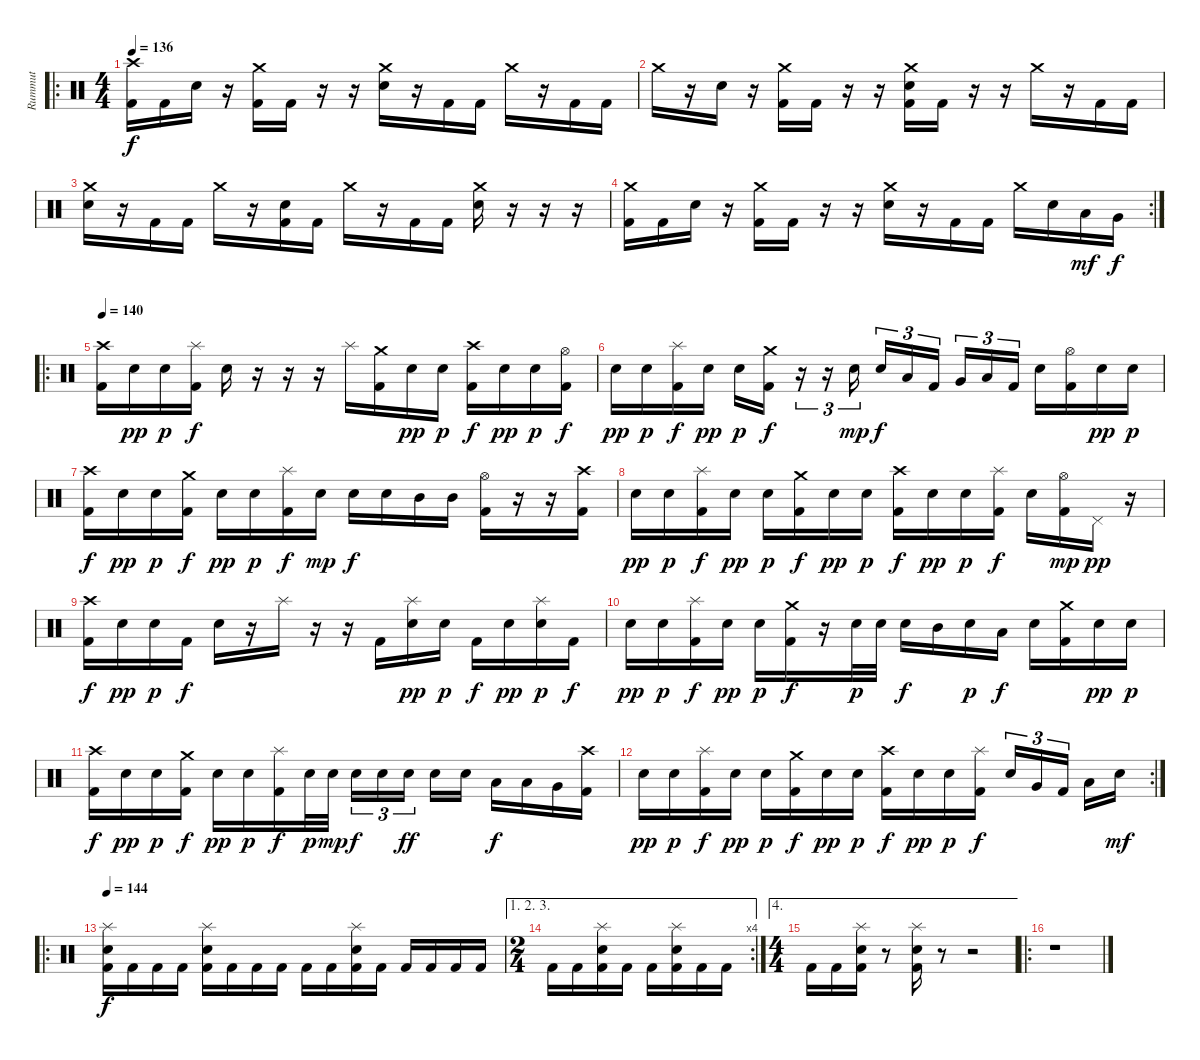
\track ("Rummut" "Rummut") {instrument percussion}
\staff {score}
\articulation defaults
\ro
\ts (4 4)
\tempo 136
\clef neutral
\ks c
("Crash high (hit)" "Kick (hit) 2").16{dy f} "Kick (hit) 2".16 "Electric Snare (hit)".16 r.16 ("Crash medium (hit)" "Kick (hit) 2").16 "Kick (hit) 2".16 r.16 r.16 ("Crash medium (hit)" "Electric Snare (hit)").16 r.16 "Kick (hit) 2".16 "Kick (hit) 2".16 "Crash medium (hit)".16 r.16 "Kick (hit) 2".16 "Kick (hit) 2".16 |
"Crash medium (hit)".16 r.16 "Electric Snare (hit)".16 r.16 ("Crash medium (hit)" "Kick (hit) 2").16 "Kick (hit) 2".16 r.16 r.16 ("Crash medium (hit)" "Electric Snare (hit)" "Kick (hit) 2").16 "Kick (hit) 2".16 r.16 r.16 "Crash medium (hit)".16 r.16 "Kick (hit) 2".16 "Kick (hit) 2".16 |
("Crash medium (hit)" "Electric Snare (hit)").16 r.16 "Kick (hit) 2".16 "Kick (hit) 2".16 "Crash medium (hit)".16 r.16 ("Electric Snare (hit)" "Kick (hit) 2").16 "Kick (hit) 2".16 "Crash medium (hit)".16 r.16 "Kick (hit) 2".16 "Kick (hit) 2".16 ("Crash medium (hit)" "Electric Snare (hit)").16 r.16 r.16 r.16 |
\rc 2
("Crash medium (hit)" "Kick (hit) 2").16 "Kick (hit) 2".16 "Electric Snare (hit)".16 r.16 ("Crash medium (hit)" "Kick (hit) 2").16 "Kick (hit) 2".16 r.16 r.16 ("Crash medium (hit)" "Electric Snare (hit)").16 r.16 "Kick (hit) 2".16 "Kick (hit) 2".16 "Crash medium (hit)".16 "Electric Snare (hit)".16 "Low Tom (hit)".16{dy mf} "Very Low Tom (hit)".16{dy f} |
\ro
\tempo 140
("Crash high (hit)" "Kick (hit) 2").16 "Electric Snare (hit)".16{dy pp} "Electric Snare (hit)".16{dy p} ("Splash (hit)" "Kick (hit) 2").16{dy f} "Electric Snare (hit)".16 r.16 r.16 r.16 "Splash (hit)".16 ("Crash medium (hit)" "Kick (hit) 2").16 "Electric Snare (hit)".16{dy pp} "Electric Snare (hit)".16{dy p} ("Crash high (hit)" "Kick (hit) 2").16{dy f} "Electric Snare (hit)".16{dy pp} "Electric Snare (hit)".16{dy p} ("Hi-Hat (open)" "Kick (hit) 2").16{dy f} |
"Electric Snare (hit)".16{dy pp} "Electric Snare (hit)".16{dy p} ("Splash (hit)" "Kick (hit) 2").16{dy f} "Electric Snare (hit)".16{dy pp} "Electric Snare (hit)".16{dy p} ("Crash medium (hit)" "Kick (hit) 2").16{dy f} r.16{tu (3 2)} r.16{tu (3 2)} "Electric Snare (hit)".16{tu (3 2) dy mp} "Electric Snare (hit)".16{tu (3 2) dy f} "Low Tom (hit)".16{tu (3 2)} "Kick (hit) 2".16{tu (3 2)} "Very Low Tom (hit)".16{tu (3 2)} "Low Floor Tom (hit)".16{tu (3 2)} "Kick (hit) 2".16{tu (3 2)} "Electric Snare (hit)".16 ("Hi-Hat (open)" "Kick (hit) 2").16 "Electric Snare (hit)".16{dy pp} "Electric Snare (hit)".16{dy p} |
("Crash high (hit)" "Kick (hit) 2").16{dy f} "Electric Snare (hit)".16{dy pp} "Electric Snare (hit)".16{dy p} ("Crash medium (hit)" "Kick (hit) 2").16{dy f} "Electric Snare (hit)".16{dy pp} "Electric Snare (hit)".16{dy p} ("Splash (hit)" "Kick (hit) 2").16{dy f} "Electric Snare (hit)".16{dy mp} "Electric Snare (hit)".16{dy f} "Electric Snare (hit)".16 "Mid Tom (hit)".16 "Mid Tom (hit)".16 ("Hi-Hat (open)" "Kick (hit) 2").16 r.16 r.16 ("Crash high (hit)" "Kick (hit) 2").16 |
"Electric Snare (hit)".16{dy pp} "Electric Snare (hit)".16{dy p} ("Splash (hit)" "Kick (hit) 2").16{dy f} "Electric Snare (hit)".16{dy pp} "Electric Snare (hit)".16{dy p} ("Crash medium (hit)" "Kick (hit) 2").16{dy f} "Electric Snare (hit)".16{dy pp} "Electric Snare (hit)".16{dy p} ("Crash high (hit)" "Kick (hit) 2").16{dy f} "Electric Snare (hit)".16{dy pp} "Electric Snare (hit)".16{dy p} ("Splash (hit)" "Kick (hit) 2").16{dy f} "Electric Snare (hit)".16 ("Hi-Hat (open)" "Kick (hit) 2").16{dy mp} "Pedal Hi-Hat (hit)".16{dy pp} r.16 |
("Crash high (hit)" "Kick (hit) 2").16{dy f} "Electric Snare (hit)".16{dy pp} "Electric Snare (hit)".16{dy p} "Kick (hit) 2".16{dy f} "Electric Snare (hit)".16 r.16 "Splash (hit)".16 r.16 r.16 "Kick (hit) 2".16 ("Splash (hit)" "Electric Snare (hit)").16{dy pp} "Electric Snare (hit)".16{dy p} "Kick (hit) 2".16{dy f} "Electric Snare (hit)".16{dy pp} ("Splash (hit)" "Electric Snare (hit)").16{dy p} "Kick (hit) 2".16{dy f} |
"Electric Snare (hit)".16{dy pp} "Electric Snare (hit)".16{dy p} ("Splash (hit)" "Kick (hit) 2").16{dy f} "Electric Snare (hit)".16{dy pp} "Electric Snare (hit)".16{dy p} ("Crash medium (hit)" "Kick (hit) 2").16{dy f} r.16 "Electric Snare (hit)".32{dy p} "Electric Snare (hit)".32 "Electric Snare (hit)".16{dy f} "Mid Tom (hit)".16 "Electric Snare (hit)".16{dy p} "Low Tom (hit)".16{dy f} "Electric Snare (hit)".16 ("Crash medium (hit)" "Kick (hit) 2").16 "Electric Snare (hit)".16{dy pp} "Electric Snare (hit)".16{dy p} |
("Crash high (hit)" "Kick (hit) 2").16{dy f} "Electric Snare (hit)".16{dy pp} "Electric Snare (hit)".16{dy p} ("Crash medium (hit)" "Kick (hit) 2").16{dy f} "Electric Snare (hit)".16{dy pp} "Electric Snare (hit)".16{dy p} ("Splash (hit)" "Kick (hit) 2").16{dy f} "Electric Snare (hit)".32{dy p} "Electric Snare (hit)".32{dy mp} "Electric Snare (hit)".16{tu (3 2) dy f} "Electric Snare (hit)".16{tu (3 2)} "Electric Snare (hit)".16{tu (3 2) dy ff} "Electric Snare (hit)".16 "Electric Snare (hit)".16 "Low Tom (hit)".16{dy f} "Low Tom (hit)".16 "Very Low Tom (hit)".16 ("Crash high (hit)" "Kick (hit) 2").16 |
\rc 2 "Electric Snare (hit)".16{dy pp} "Electric Snare (hit)".16{dy p}
("Splash (hit)" "Kick (hit) 2").16{dy f} "Electric Snare (hit)".16{dy pp} "Electric Snare (hit)".16{dy p} ("Crash medium (hit)" "Kick (hit) 2").16{dy f} "Electric Snare (hit)".16{dy pp} "Electric Snare (hit)".16{dy p} ("Crash high (hit)" "Kick (hit) 2").16{dy f} "Electric Snare (hit)".16{dy pp} "Electric Snare (hit)".16{dy p} ("Splash (hit)" "Kick (hit) 2").16{dy f} "Electric Snare (hit)".16{tu (3 2)} "Very Low Tom (hit)".16{tu (3 2)} "Kick (hit) 2".16{tu (3 2)} "Low Floor Tom (hit)".16 "Electric Snare (hit)".16{dy mf} |
\ro
\tempo 144
("Splash (hit)" "Electric Snare (hit)" "Kick (hit) 2").16{dy f} "Kick (hit) 2".16 "Kick (hit) 2".16 "Kick (hit) 2".16 ("Splash (hit)" "Electric Snare (hit)" "Kick (hit) 2").16 "Kick (hit) 2".16 "Kick (hit) 2".16 "Kick (hit) 2".16 "Kick (hit) 2".16 "Kick (hit) 2".16 ("Splash (hit)" "Electric Snare (hit)" "Kick (hit) 2").16 "Kick (hit) 2".16 "Kick (hit) 2".16 "Kick (hit) 2".16 "Kick (hit) 2".16 "Kick (hit) 2".16 |
\ae (1 2 3)
\rc 4
\ts (2 4)
"Kick (hit) 2".16 "Kick (hit) 2".16 ("Splash (hit)" "Electric Snare (hit)" "Kick (hit) 2").16 "Kick (hit) 2".16 "Kick (hit) 2".16 ("Splash (hit)" "Electric Snare (hit)" "Kick (hit) 2").16 "Kick (hit) 2".16 "Kick (hit) 2".16 |
\ae 4
\ts (4 4)
"Kick (hit) 2".16 "Kick (hit) 2".16 ("Splash (hit)" "Electric Snare (hit)" "Kick (hit) 2").16 r.8 ("Splash (hit)" "Electric Snare (hit)" "Kick (hit) 2").16 r.8 r.2 |
\ro
r.1
